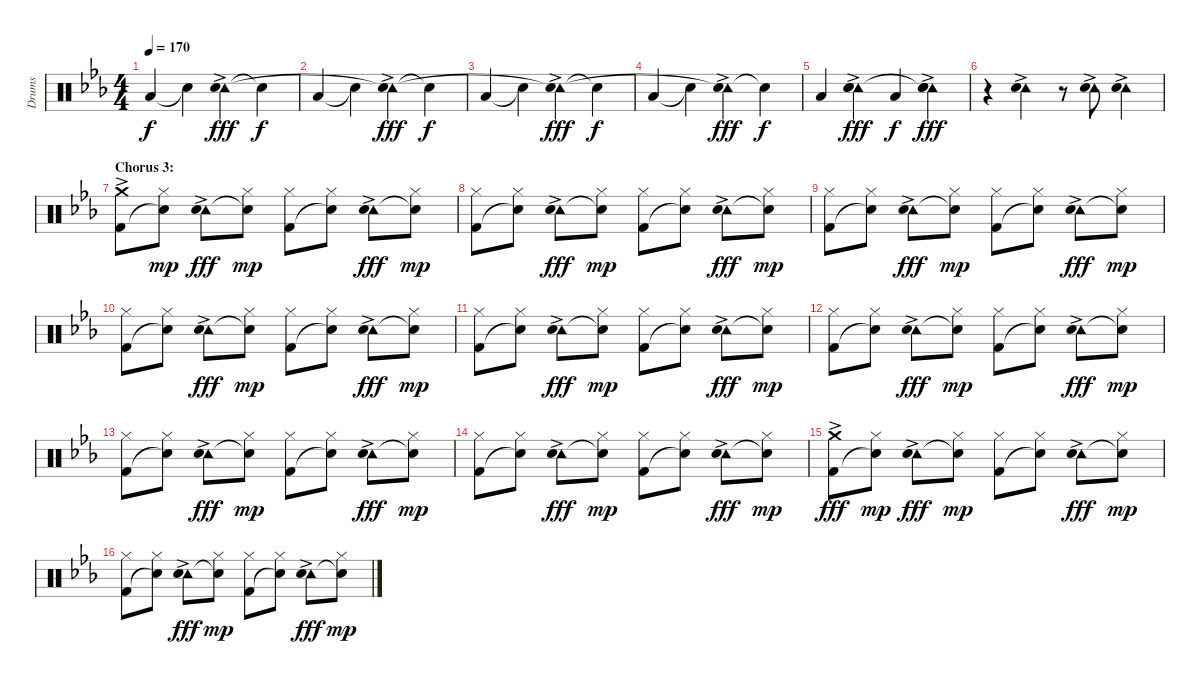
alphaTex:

\track ("Drums" "Drums") {instrument percussion}
\staff {score}
\articulation defaults
\ts (4 4)
\tempo 170
\clef neutral
\ks cminor "Low Floor Tom (hit)".4{dy f} "Snare (hit)"{t}.4
("Tambourine (hit)"{ac} "Snare (hit)"{t}).4{dy fff} "Snare (hit)"{t}.4{dy f} |
"Low Floor Tom (hit)".4 "Snare (hit)"{t}.4 ("Tambourine (hit)"{ac} "Snare (hit)"{t}).4{dy fff} "Snare (hit)"{t}.4{dy f} |
"Low Floor Tom (hit)".4 "Snare (hit)"{t}.4 ("Tambourine (hit)"{ac} "Snare (hit)"{t}).4{dy fff} "Snare (hit)"{t}.4{dy f} |
"Low Floor Tom (hit)".4 "Snare (hit)"{t}.4 ("Tambourine (hit)"{ac} "Snare (hit)"{t}).4{dy fff} "Snare (hit)"{t}.4{dy f} |
"Low Floor Tom (hit)".4 ("Tambourine (hit)"{ac} "Hand Clap (hit)" "Snare (hit)").4{dy fff} "Low Floor Tom (hit)".4{dy f} ("Tambourine (hit)"{ac} "Hand Clap (hit)" "Snare (hit)"{t}).4{dy fff} |
r.4 ("Tambourine (hit)"{ac} "Hand Clap (hit)").4 r.8 ("Tambourine (hit)"{ac} "Hand Clap (hit)").8 ("Tambourine (hit)"{ac} "Hand Clap (hit)").4 |
\section ("" "Chorus 3:")
("Crash medium (hit)"{ac} "Kick (hit) 2").8 ("Hi-Hat (closed)" "Snare (hit)"{t}).8{dy mp} ("Tambourine (hit)"{ac} "Hand Clap (hit)").8{dy fff} ("Hi-Hat (closed)" "Snare (hit)"{t}).8{dy mp} ("Hi-Hat (closed)" "Kick (hit) 2").8 ("Hi-Hat (closed)" "Snare (hit)"{t}).8 ("Tambourine (hit)"{ac} "Hand Clap (hit)").8{dy fff} ("Hi-Hat (closed)" "Snare (hit)"{t}).8{dy mp} |
("Hi-Hat (closed)" "Kick (hit) 2").8 ("Hi-Hat (closed)" "Snare (hit)"{t}).8 ("Tambourine (hit)"{ac} "Hand Clap (hit)").8{dy fff} ("Hi-Hat (closed)" "Snare (hit)"{t}).8{dy mp} ("Hi-Hat (closed)" "Kick (hit) 2").8 ("Hi-Hat (closed)" "Snare (hit)"{t}).8 ("Tambourine (hit)"{ac} "Hand Clap (hit)").8{dy fff} ("Hi-Hat (closed)" "Snare (hit)"{t}).8{dy mp} |
("Hi-Hat (closed)" "Kick (hit) 2").8 ("Hi-Hat (closed)" "Snare (hit)"{t}).8 ("Tambourine (hit)"{ac} "Hand Clap (hit)").8{dy fff} ("Hi-Hat (closed)" "Snare (hit)"{t}).8{dy mp} ("Hi-Hat (closed)" "Kick (hit) 2").8 ("Hi-Hat (closed)" "Snare (hit)"{t}).8 ("Tambourine (hit)"{ac} "Hand Clap (hit)").8{dy fff} ("Hi-Hat (closed)" "Snare (hit)"{t}).8{dy mp} |
("Hi-Hat (closed)" "Kick (hit) 2").8 ("Hi-Hat (closed)" "Snare (hit)"{t}).8 ("Tambourine (hit)"{ac} "Hand Clap (hit)").8{dy fff} ("Hi-Hat (closed)" "Snare (hit)"{t}).8{dy mp} ("Hi-Hat (closed)" "Kick (hit) 2").8 ("Hi-Hat (closed)" "Snare (hit)"{t}).8 ("Tambourine (hit)"{ac} "Hand Clap (hit)").8{dy fff} ("Hi-Hat (closed)" "Snare (hit)"{t}).8{dy mp} |
("Hi-Hat (closed)" "Kick (hit) 2").8 ("Hi-Hat (closed)" "Snare (hit)"{t}).8 ("Tambourine (hit)"{ac} "Hand Clap (hit)").8{dy fff} ("Hi-Hat (closed)" "Snare (hit)"{t}).8{dy mp} ("Hi-Hat (closed)" "Kick (hit) 2").8 ("Hi-Hat (closed)" "Snare (hit)"{t}).8 ("Tambourine (hit)"{ac} "Hand Clap (hit)").8{dy fff} ("Hi-Hat (closed)" "Snare (hit)"{t}).8{dy mp} |
("Hi-Hat (closed)" "Kick (hit) 2").8 ("Hi-Hat (closed)" "Snare (hit)"{t}).8 ("Tambourine (hit)"{ac} "Hand Clap (hit)").8{dy fff} ("Hi-Hat (closed)" "Snare (hit)"{t}).8{dy mp} ("Hi-Hat (closed)" "Kick (hit) 2").8 ("Hi-Hat (closed)" "Snare (hit)"{t}).8 ("Tambourine (hit)"{ac} "Hand Clap (hit)").8{dy fff} ("Hi-Hat (closed)" "Snare (hit)"{t}).8{dy mp} |
("Hi-Hat (closed)" "Kick (hit) 2").8 ("Hi-Hat (closed)" "Snare (hit)"{t}).8 ("Tambourine (hit)"{ac} "Hand Clap (hit)").8{dy fff} ("Hi-Hat (closed)" "Snare (hit)"{t}).8{dy mp} ("Hi-Hat (closed)" "Kick (hit) 2").8 ("Hi-Hat (closed)" "Snare (hit)"{t}).8 ("Tambourine (hit)"{ac} "Hand Clap (hit)").8{dy fff} ("Hi-Hat (closed)" "Snare (hit)"{t}).8{dy mp} |
("Hi-Hat (closed)" "Kick (hit) 2").8 ("Hi-Hat (closed)" "Snare (hit)"{t}).8 ("Tambourine (hit)"{ac} "Hand Clap (hit)").8{dy fff} ("Hi-Hat (closed)" "Snare (hit)"{t}).8{dy mp} ("Hi-Hat (closed)" "Kick (hit) 2").8 ("Hi-Hat (closed)" "Snare (hit)"{t}).8 ("Tambourine (hit)"{ac} "Hand Clap (hit)").8{dy fff} ("Hi-Hat (closed)" "Snare (hit)"{t}).8{dy mp} |
("Crash medium (hit)"{ac} "Kick (hit) 2").8{dy fff} ("Hi-Hat (closed)" "Snare (hit)"{t}).8{dy mp} ("Tambourine (hit)"{ac} "Hand Clap (hit)").8{dy fff} ("Hi-Hat (closed)" "Snare (hit)"{t}).8{dy mp} ("Hi-Hat (closed)" "Kick (hit) 2").8 ("Hi-Hat (closed)" "Snare (hit)"{t}).8 ("Tambourine (hit)"{ac} "Hand Clap (hit)").8{dy fff} ("Hi-Hat (closed)" "Snare (hit)"{t}).8{dy mp} |
("Hi-Hat (closed)" "Kick (hit) 2").8 ("Hi-Hat (closed)" "Snare (hit)"{t}).8 ("Tambourine (hit)"{ac} "Hand Clap (hit)").8{dy fff} ("Hi-Hat (closed)" "Snare (hit)"{t}).8{dy mp} ("Hi-Hat (closed)" "Kick (hit) 2").8 ("Hi-Hat (closed)" "Snare (hit)"{t}).8 ("Tambourine (hit)"{ac} "Hand Clap (hit)").8{dy fff} ("Hi-Hat (closed)" "Snare (hit)"{t}).8{dy mp}
